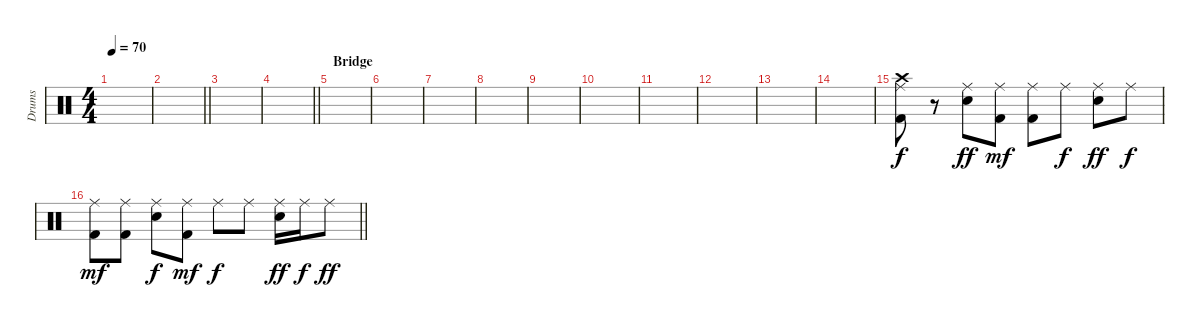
\track ("Drums" "Drums") {instrument percussion}
\staff {score}
\articulation defaults
\ts (4 4)
\tempo 70
\clef neutral
\ks c
|
\barLineRight lightlight
|
|
\barLineRight lightlight
|
\section ("" "Bridge")
|
|
|
|
|
|
|
|
|
|
("Ride (middle)" "Crash high (hit)" "Kick (hit) 2").8 r.8 ("Ride (middle)" "Electric Snare (hit)").8{dy ff} ("Ride (middle)" "Kick (hit) 2").8{dy mf} ("Ride (middle)" "Kick (hit) 2").8 "Ride (middle)".8{dy f} ("Ride (middle)" "Electric Snare (hit)").8{dy ff} "Ride (middle)".8{dy f} |
\barLineRight lightlight
("Ride (middle)" "Kick (hit) 2").8{dy mf} ("Ride (middle)" "Kick (hit) 2").8 ("Ride (middle)" "Electric Snare (hit)").8{dy f} ("Ride (middle)" "Kick (hit) 2").8{dy mf} "Ride (middle)".8{dy f} "Ride (middle)".8 ("Ride (middle)" "Electric Snare (hit)").16{dy ff} "Ride (middle)".16{dy f} "Ride (middle)".8{dy ff}
